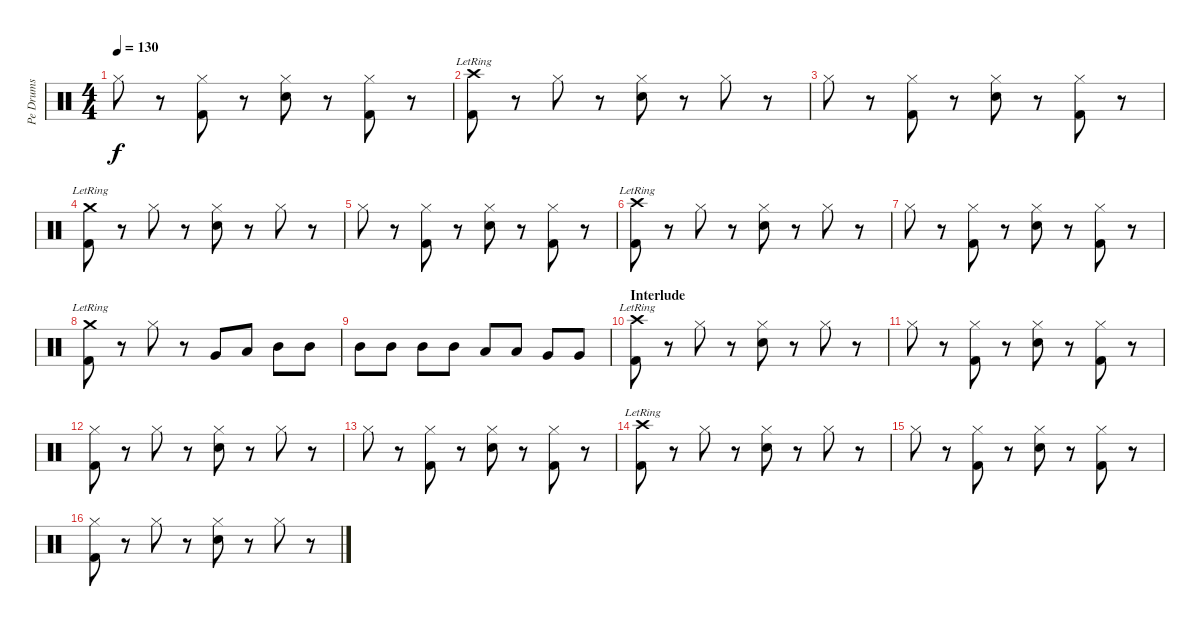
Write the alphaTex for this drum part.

\track ("Pe Drums" "Pe Drums") {instrument percussion}
\staff {score}
\articulation defaults
\ts (4 4)
\tempo 130
\clef neutral
\ks c "Hi-Hat (closed)".8{dy f}
r.8 ("Hi-Hat (closed)" "Kick (hit) 2").8 r.8 ("Hi-Hat (closed)" "Electric Snare (hit)").8 r.8 ("Hi-Hat (closed)" "Kick (hit) 2").8 r.8 |
("Crash high (hit)"{lr} "Kick (hit) 2").8 r.8 "Hi-Hat (closed)".8 r.8 ("Hi-Hat (closed)" "Electric Snare (hit)").8 r.8 "Hi-Hat (closed)".8 r.8 |
"Hi-Hat (closed)".8 r.8 ("Hi-Hat (closed)" "Kick (hit) 2").8 r.8 ("Hi-Hat (closed)" "Electric Snare (hit)").8 r.8 ("Hi-Hat (closed)" "Kick (hit) 2").8 r.8 |
("Crash medium (hit)"{lr} "Kick (hit) 2").8 r.8 "Hi-Hat (closed)".8 r.8 ("Hi-Hat (closed)" "Electric Snare (hit)").8 r.8 "Hi-Hat (closed)".8 r.8 |
"Hi-Hat (closed)".8 r.8 ("Hi-Hat (closed)" "Kick (hit) 2").8 r.8 ("Hi-Hat (closed)" "Electric Snare (hit)").8 r.8 ("Hi-Hat (closed)" "Kick (hit) 2").8 r.8 |
("Crash high (hit)"{lr} "Kick (hit) 2").8 r.8 "Hi-Hat (closed)".8 r.8 ("Hi-Hat (closed)" "Electric Snare (hit)").8 r.8 "Hi-Hat (closed)".8 r.8 |
"Hi-Hat (closed)".8 r.8 ("Hi-Hat (closed)" "Kick (hit) 2").8 r.8 ("Hi-Hat (closed)" "Electric Snare (hit)").8 r.8 ("Hi-Hat (closed)" "Kick (hit) 2").8 r.8 |
("Crash medium (hit)"{lr} "Kick (hit) 2").8 r.8 "Hi-Hat (closed)".8 r.8 "Very Low Tom (hit)".8 "Low Tom (hit)".8 "Mid Tom (hit)".8 "Mid Tom (hit)".8 |
"Mid Tom (hit)".8 "Mid Tom (hit)".8 "Mid Tom (hit)".8 "Mid Tom (hit)".8 "Low Tom (hit)".8 "Low Tom (hit)".8 "Very Low Tom (hit)".8 "Very Low Tom (hit)".8 |
\section ("" "Interlude")
("Crash high (hit)"{lr} "Kick (hit) 2").8 r.8 "Hi-Hat (closed)".8 r.8 ("Hi-Hat (closed)" "Electric Snare (hit)").8 r.8 "Hi-Hat (closed)".8 r.8 |
"Hi-Hat (closed)".8 r.8 ("Hi-Hat (closed)" "Kick (hit) 2").8 r.8 ("Hi-Hat (closed)" "Electric Snare (hit)").8 r.8 ("Hi-Hat (closed)" "Kick (hit) 2").8 r.8 |
("Hi-Hat (closed)" "Kick (hit) 2").8 r.8 "Hi-Hat (closed)".8 r.8 ("Hi-Hat (closed)" "Electric Snare (hit)").8 r.8 "Hi-Hat (closed)".8 r.8 |
"Hi-Hat (closed)".8 r.8 ("Hi-Hat (closed)" "Kick (hit) 2").8 r.8 ("Hi-Hat (closed)" "Electric Snare (hit)").8 r.8 ("Hi-Hat (closed)" "Kick (hit) 2").8 r.8 |
("Crash high (hit)"{lr} "Kick (hit) 2").8 r.8 "Hi-Hat (closed)".8 r.8 ("Hi-Hat (closed)" "Electric Snare (hit)").8 r.8 "Hi-Hat (closed)".8 r.8 |
"Hi-Hat (closed)".8 r.8 ("Hi-Hat (closed)" "Kick (hit) 2").8 r.8 ("Hi-Hat (closed)" "Electric Snare (hit)").8 r.8 ("Hi-Hat (closed)" "Kick (hit) 2").8 r.8 |
("Hi-Hat (closed)" "Kick (hit) 2").8 r.8 "Hi-Hat (closed)".8 r.8 ("Hi-Hat (closed)" "Electric Snare (hit)").8 r.8 "Hi-Hat (closed)".8 r.8
